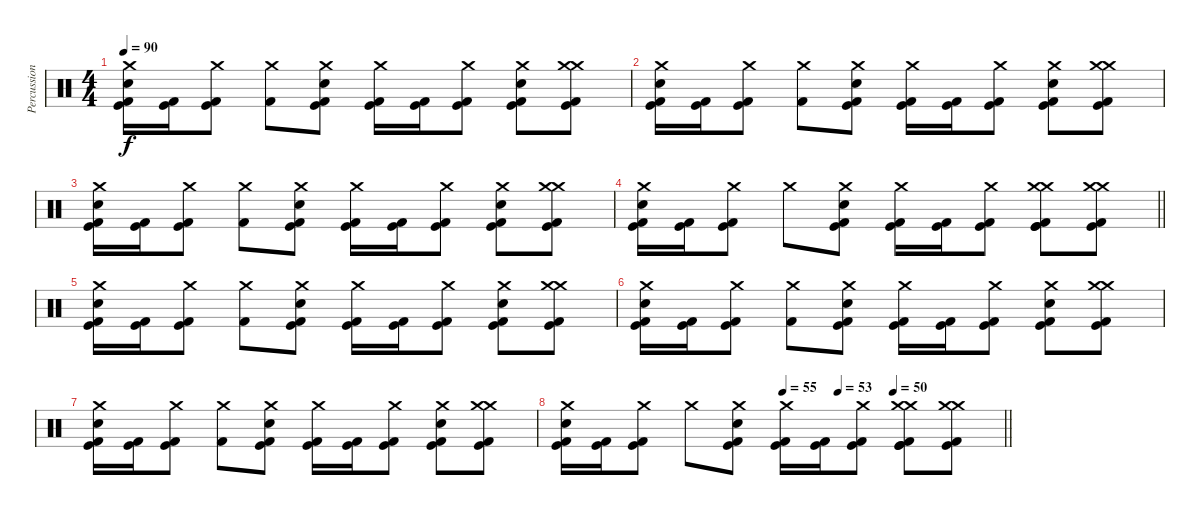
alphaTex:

\track ("Percussion" "Percussion") {instrument percussion}
\staff {score}
\articulation defaults
\ts (4 4)
\tempo 90
\clef neutral
\ks c
("Crash medium (hit)" "Snare (hit) 2" "Kick (hit)" "Kick (hit) 2").16{dy f} ("Kick (hit)" "Kick (hit) 2").16 ("Crash medium (hit)" "Kick (hit)" "Kick (hit) 2").8 ("Crash medium (hit)" "Kick (hit) 2").8 ("Crash medium (hit)" "Snare (hit) 2" "Kick (hit)" "Kick (hit) 2").8 ("Crash medium (hit)" "Kick (hit)" "Kick (hit) 2").16 ("Kick (hit)" "Kick (hit) 2").16 ("Crash medium (hit)" "Kick (hit)" "Kick (hit) 2").8 ("Crash medium (hit)" "Snare (hit) 2" "Kick (hit)" "Kick (hit) 2").8 ("Crash medium (hit)" "Crash medium (hit)" "Kick (hit)" "Kick (hit) 2").8 |
("Crash medium (hit)" "Snare (hit) 2" "Kick (hit)" "Kick (hit) 2").16 ("Kick (hit)" "Kick (hit) 2").16 ("Crash medium (hit)" "Kick (hit)" "Kick (hit) 2").8 ("Crash medium (hit)" "Kick (hit) 2").8 ("Crash medium (hit)" "Snare (hit) 2" "Kick (hit)" "Kick (hit) 2").8 ("Crash medium (hit)" "Kick (hit)" "Kick (hit) 2").16 ("Kick (hit)" "Kick (hit) 2").16 ("Crash medium (hit)" "Kick (hit)" "Kick (hit) 2").8 ("Crash medium (hit)" "Snare (hit) 2" "Kick (hit)" "Kick (hit) 2").8 ("Crash medium (hit)" "Crash medium (hit)" "Kick (hit)" "Kick (hit) 2").8 |
("Crash medium (hit)" "Snare (hit) 2" "Kick (hit)" "Kick (hit) 2").16 ("Kick (hit)" "Kick (hit) 2").16 ("Crash medium (hit)" "Kick (hit)" "Kick (hit) 2").8 ("Crash medium (hit)" "Kick (hit) 2").8 ("Crash medium (hit)" "Snare (hit) 2" "Kick (hit)" "Kick (hit) 2").8 ("Crash medium (hit)" "Kick (hit)" "Kick (hit) 2").16 ("Kick (hit)" "Kick (hit) 2").16 ("Crash medium (hit)" "Kick (hit)" "Kick (hit) 2").8 ("Crash medium (hit)" "Snare (hit) 2" "Kick (hit)" "Kick (hit) 2").8 ("Crash medium (hit)" "Crash medium (hit)" "Kick (hit)" "Kick (hit) 2").8 |
\barLineRight lightlight
("Crash medium (hit)" "Snare (hit) 2" "Kick (hit)" "Kick (hit) 2").16 ("Kick (hit)" "Kick (hit) 2").16 ("Crash medium (hit)" "Kick (hit)" "Kick (hit) 2").8 "Crash medium (hit)".8 ("Crash medium (hit)" "Snare (hit) 2" "Kick (hit)" "Kick (hit) 2").8 ("Crash medium (hit)" "Kick (hit)" "Kick (hit) 2").16 ("Kick (hit)" "Kick (hit) 2").16 ("Crash medium (hit)" "Kick (hit)" "Kick (hit) 2").8 ("Crash medium (hit)" "Crash medium (hit)" "Kick (hit)" "Kick (hit)" "Kick (hit) 2").8 ("Crash medium (hit)" "Crash medium (hit)" "Kick (hit)" "Kick (hit) 2").8 |
\section ("" "")
("Crash medium (hit)" "Snare (hit) 2" "Kick (hit)" "Kick (hit) 2").16 ("Kick (hit)" "Kick (hit) 2").16 ("Crash medium (hit)" "Kick (hit)" "Kick (hit) 2").8 ("Crash medium (hit)" "Kick (hit) 2").8 ("Crash medium (hit)" "Snare (hit) 2" "Kick (hit)" "Kick (hit) 2").8 ("Crash medium (hit)" "Kick (hit)" "Kick (hit) 2").16 ("Kick (hit)" "Kick (hit) 2").16 ("Crash medium (hit)" "Kick (hit)" "Kick (hit) 2").8 ("Crash medium (hit)" "Snare (hit) 2" "Kick (hit)" "Kick (hit) 2").8 ("Crash medium (hit)" "Crash medium (hit)" "Kick (hit)" "Kick (hit) 2").8 |
("Crash medium (hit)" "Snare (hit) 2" "Kick (hit)" "Kick (hit) 2").16 ("Kick (hit)" "Kick (hit) 2").16 ("Crash medium (hit)" "Kick (hit)" "Kick (hit) 2").8 ("Crash medium (hit)" "Kick (hit) 2").8 ("Crash medium (hit)" "Snare (hit) 2" "Kick (hit)" "Kick (hit) 2").8 ("Crash medium (hit)" "Kick (hit)" "Kick (hit) 2").16 ("Kick (hit)" "Kick (hit) 2").16 ("Crash medium (hit)" "Kick (hit)" "Kick (hit) 2").8 ("Crash medium (hit)" "Snare (hit) 2" "Kick (hit)" "Kick (hit) 2").8 ("Crash medium (hit)" "Crash medium (hit)" "Kick (hit)" "Kick (hit) 2").8 |
("Crash medium (hit)" "Snare (hit) 2" "Kick (hit)" "Kick (hit) 2").16 ("Kick (hit)" "Kick (hit) 2").16 ("Crash medium (hit)" "Kick (hit)" "Kick (hit) 2").8 ("Crash medium (hit)" "Kick (hit) 2").8 ("Crash medium (hit)" "Snare (hit) 2" "Kick (hit)" "Kick (hit) 2").8 ("Crash medium (hit)" "Kick (hit)" "Kick (hit) 2").16 ("Kick (hit)" "Kick (hit) 2").16 ("Crash medium (hit)" "Kick (hit)" "Kick (hit) 2").8 ("Crash medium (hit)" "Snare (hit) 2" "Kick (hit)" "Kick (hit) 2").8 ("Crash medium (hit)" "Crash medium (hit)" "Kick (hit)" "Kick (hit) 2").8 |
\tempo (55 0.5)
\tempo (53 0.625)
\tempo (50 0.75)
\barLineRight lightlight
("Crash medium (hit)" "Snare (hit) 2" "Kick (hit)" "Kick (hit) 2").16 ("Kick (hit)" "Kick (hit) 2").16 ("Crash medium (hit)" "Kick (hit)" "Kick (hit) 2").8 "Crash medium (hit)".8 ("Crash medium (hit)" "Snare (hit) 2" "Kick (hit)" "Kick (hit) 2").8 ("Crash medium (hit)" "Kick (hit)" "Kick (hit) 2").16 ("Kick (hit)" "Kick (hit) 2").16 ("Crash medium (hit)" "Kick (hit)" "Kick (hit) 2").8 ("Crash medium (hit)" "Crash medium (hit)" "Kick (hit)" "Kick (hit)" "Kick (hit) 2").8 ("Crash medium (hit)" "Crash medium (hit)" "Kick (hit)" "Kick (hit) 2").8
